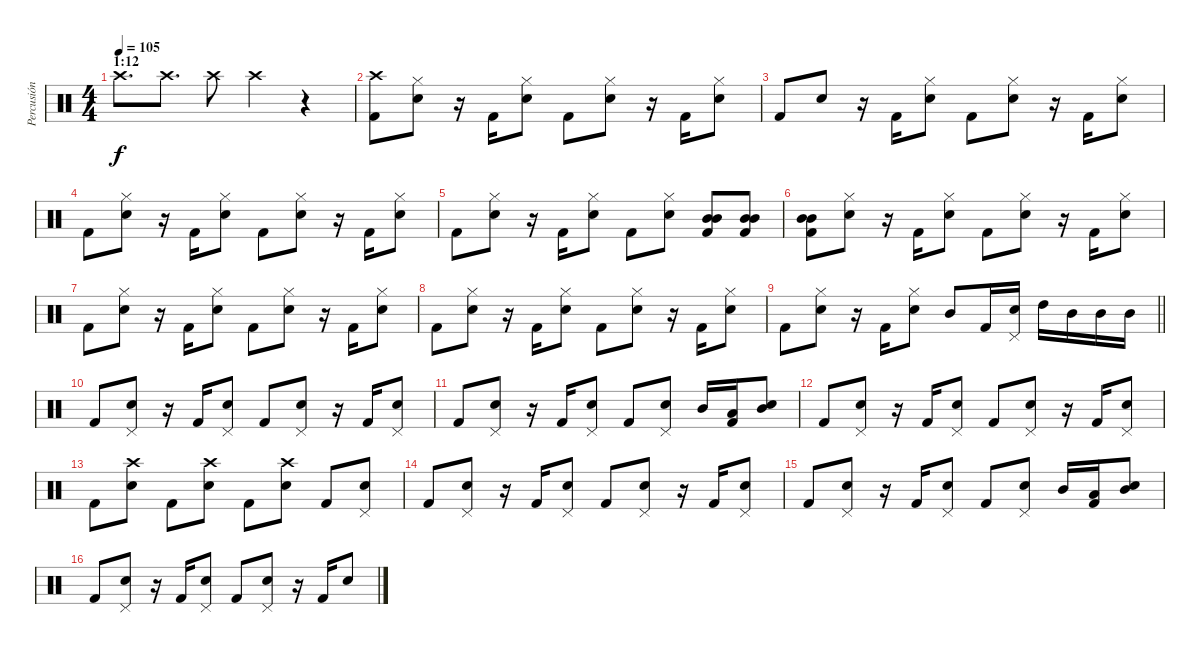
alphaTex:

\track ("Percusión" "Percusión") {instrument percussion}
\staff {score}
\articulation defaults
\ts (4 4)
\section ("" "1:12")
\tempo 105
\clef neutral
\ks c "Crash high (hit)".8{d dy f} "Crash high (hit)".8{d} "Crash high (hit)".8 "Crash high (hit)".4
r.4 |
("Kick (hit) 2" "Crash high (hit)").8 ("Snare (hit) 2" "Hi-Hat (closed)").8 r.16 "Kick (hit) 2".16 ("Snare (hit) 2" "Hi-Hat (closed)").8 "Kick (hit) 2".8 ("Snare (hit) 2" "Hi-Hat (closed)").8 r.16 "Kick (hit) 2".16 ("Snare (hit) 2" "Hi-Hat (closed)").8 |
"Kick (hit) 2".8 "Snare (hit) 2".8 r.16 "Kick (hit) 2".16 ("Snare (hit) 2" "Hi-Hat (closed)").8 "Kick (hit) 2".8 ("Snare (hit) 2" "Hi-Hat (closed)").8 r.16 "Kick (hit) 2".16 ("Snare (hit) 2" "Hi-Hat (closed)").8 |
"Kick (hit) 2".8 ("Snare (hit) 2" "Hi-Hat (closed)").8 r.16 "Kick (hit) 2".16 ("Snare (hit) 2" "Hi-Hat (closed)").8 "Kick (hit) 2".8 ("Snare (hit) 2" "Hi-Hat (closed)").8 r.16 "Kick (hit) 2".16 ("Snare (hit) 2" "Hi-Hat (closed)").8 |
"Kick (hit) 2".8 ("Snare (hit) 2" "Hi-Hat (closed)").8 r.16 "Kick (hit) 2".16 ("Snare (hit) 2" "Hi-Hat (closed)").8 "Kick (hit) 2".8 ("Snare (hit) 2" "Hi-Hat (closed)").8 ("Kick (hit) 2" "Mid Tom (hit)" "Mid Tom (hit)").8 ("Kick (hit) 2" "Mid Tom (hit)" "Mid Tom (hit)").8 |
("Kick (hit) 2" "Mid Tom (hit)" "Mid Tom (hit)").8 ("Snare (hit) 2" "Hi-Hat (closed)").8 r.16 "Kick (hit) 2".16 ("Snare (hit) 2" "Hi-Hat (closed)").8 "Kick (hit) 2".8 ("Snare (hit) 2" "Hi-Hat (closed)").8 r.16 "Kick (hit) 2".16 ("Snare (hit) 2" "Hi-Hat (closed)").8 |
"Kick (hit) 2".8 ("Snare (hit) 2" "Hi-Hat (closed)").8 r.16 "Kick (hit) 2".16 ("Snare (hit) 2" "Hi-Hat (closed)").8 "Kick (hit) 2".8 ("Snare (hit) 2" "Hi-Hat (closed)").8 r.16 "Kick (hit) 2".16 ("Snare (hit) 2" "Hi-Hat (closed)").8 |
"Kick (hit) 2".8 ("Snare (hit) 2" "Hi-Hat (closed)").8 r.16 "Kick (hit) 2".16 ("Snare (hit) 2" "Hi-Hat (closed)").8 "Kick (hit) 2".8 ("Snare (hit) 2" "Hi-Hat (closed)").8 r.16 "Kick (hit) 2".16 ("Snare (hit) 2" "Hi-Hat (closed)").8 |
\barLineRight lightlight "Kick (hit) 2".8
("Snare (hit) 2" "Hi-Hat (closed)").8 r.16 "Kick (hit) 2".16 ("Snare (hit) 2" "Hi-Hat (closed)").8 "Mid Tom (hit)".8 "Kick (hit) 2".16 ("Snare (hit) 2" "Pedal Hi-Hat (hit)").16 "High Tom (hit)".16 "Mid Tom (hit)".16 "Mid Tom (hit)".16 "Mid Tom (hit)".16 |
"Kick (hit) 2".8 ("Snare (hit) 2" "Pedal Hi-Hat (hit)").8 r.16 "Kick (hit) 2".16 ("Snare (hit) 2" "Pedal Hi-Hat (hit)").8 "Kick (hit) 2".8 ("Snare (hit) 2" "Pedal Hi-Hat (hit)").8 r.16 "Kick (hit) 2".16 ("Snare (hit) 2" "Pedal Hi-Hat (hit)").8 |
"Kick (hit) 2".8 ("Snare (hit) 2" "Pedal Hi-Hat (hit)").8 r.16 "Kick (hit) 2".16 ("Snare (hit) 2" "Pedal Hi-Hat (hit)").8 "Kick (hit) 2".8 ("Snare (hit) 2" "Pedal Hi-Hat (hit)").8 "Mid Tom (hit)".16 ("Kick (hit) 2" "Low Tom (hit)").16 ("Snare (hit) 2" "Mid Tom (hit)").8 |
"Kick (hit) 2".8 ("Snare (hit) 2" "Pedal Hi-Hat (hit)").8 r.16 "Kick (hit) 2".16 ("Snare (hit) 2" "Pedal Hi-Hat (hit)").8 "Kick (hit) 2".8 ("Snare (hit) 2" "Pedal Hi-Hat (hit)").8 r.16 "Kick (hit) 2".16 ("Snare (hit) 2" "Pedal Hi-Hat (hit)").8 |
"Kick (hit) 2".8 ("Snare (hit) 2" "Crash high (hit)").8 "Kick (hit) 2".8 ("Snare (hit) 2" "Crash high (hit)").8 "Kick (hit) 2".8 ("Snare (hit) 2" "Crash high (hit)").8 "Kick (hit) 2".8 ("Snare (hit) 2" "Pedal Hi-Hat (hit)").8 |
"Kick (hit) 2".8 ("Snare (hit) 2" "Pedal Hi-Hat (hit)").8 r.16 "Kick (hit) 2".16 ("Snare (hit) 2" "Pedal Hi-Hat (hit)").8 "Kick (hit) 2".8 ("Snare (hit) 2" "Pedal Hi-Hat (hit)").8 r.16 "Kick (hit) 2".16 ("Snare (hit) 2" "Pedal Hi-Hat (hit)").8 |
"Kick (hit) 2".8 ("Snare (hit) 2" "Pedal Hi-Hat (hit)").8 r.16 "Kick (hit) 2".16 ("Snare (hit) 2" "Pedal Hi-Hat (hit)").8 "Kick (hit) 2".8 ("Snare (hit) 2" "Pedal Hi-Hat (hit)").8 "Mid Tom (hit)".16 ("Kick (hit) 2" "Low Tom (hit)").16 ("Snare (hit) 2" "Mid Tom (hit)").8 |
"Kick (hit) 2".8 ("Snare (hit) 2" "Pedal Hi-Hat (hit)").8 r.16 "Kick (hit) 2".16 ("Snare (hit) 2" "Pedal Hi-Hat (hit)").8 "Kick (hit) 2".8 ("Snare (hit) 2" "Pedal Hi-Hat (hit)").8 r.16 "Kick (hit) 2".16 "Snare (hit) 2".8
